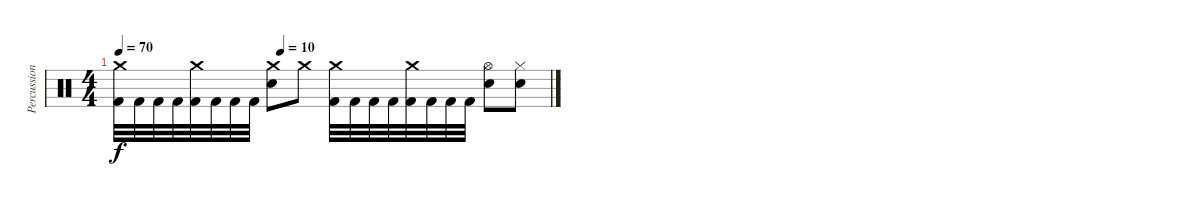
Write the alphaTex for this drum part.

\track ("Percussion" "Percussion") {instrument percussion}
\staff {score}
\articulation defaults
\ts (4 4)
\tempo 70
\tempo (10 0.375)
\clef neutral
\ks c
("Crash medium (hit)" "Kick (hit) 2").32{dy f} "Kick (hit) 2".32 "Kick (hit) 2".32 "Kick (hit) 2".32 ("Crash medium (hit)" "Kick (hit) 2").32 "Kick (hit) 2".32 "Kick (hit) 2".32 "Kick (hit) 2".32 ("Crash medium (hit)" "Electric Snare (hit)").8 "Crash medium (hit)".8 ("Crash medium (hit)" "Kick (hit) 2").32 "Kick (hit) 2".32 "Kick (hit) 2".32 "Kick (hit) 2".32 ("Crash medium (hit)" "Kick (hit) 2").32 "Kick (hit) 2".32 "Kick (hit) 2".32 "Kick (hit) 2".32 ("Hi-Hat (open)" "Electric Snare (hit)").8 ("Hi-Hat (closed)" "Electric Snare (hit)").8
